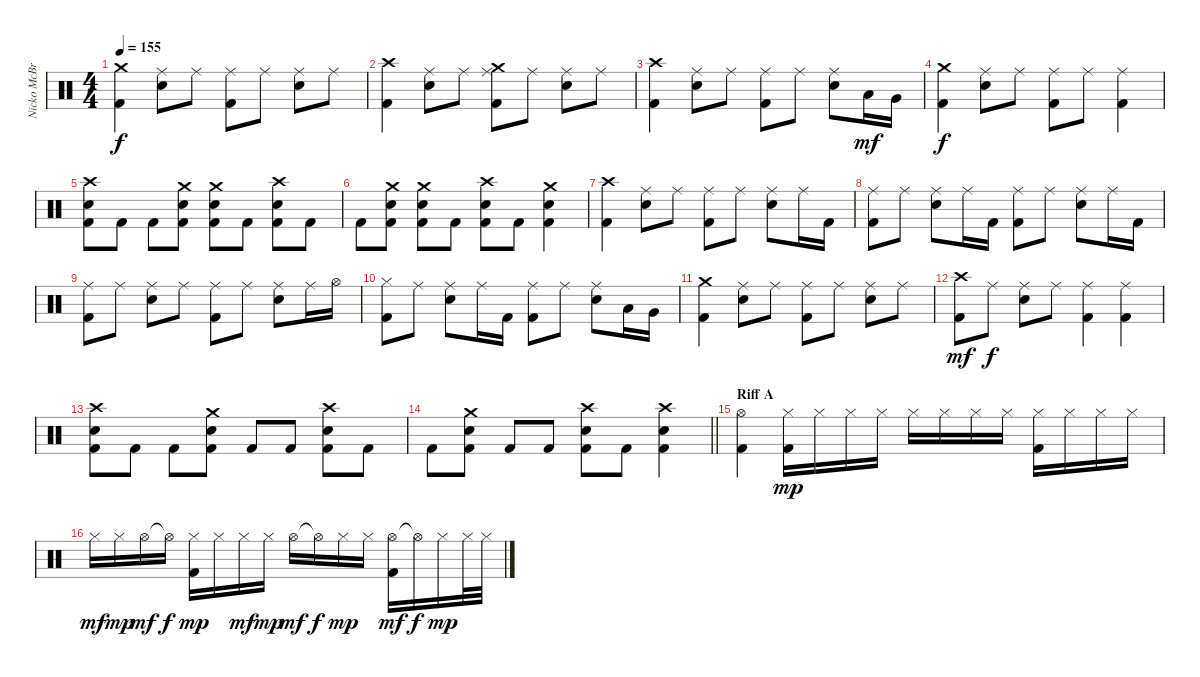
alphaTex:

\track ("Nicko McBrain" "Nicko McBr") {instrument percussion}
\staff {score}
\articulation defaults
\ts (4 4)
\tempo 155
\clef neutral
\ks c
("Crash medium (hit)" "Kick (hit) 2").4{dy f} ("Ride (middle)" "Snare (hit) 2").8 "Ride (middle)".8 ("Ride (middle)" "Kick (hit) 2").8 "Ride (middle)".8 ("Ride (middle)" "Snare (hit) 2").8 "Ride (middle)".8 |
("Crash high (hit)" "Kick (hit) 2").4 ("Ride (middle)" "Snare (hit) 2").8 "Ride (middle)".8 ("Ride (middle)" "Crash medium (hit)" "Kick (hit) 2").8 "Ride (middle)".8 ("Ride (middle)" "Snare (hit) 2").8 "Ride (middle)".8 |
("Crash high (hit)" "Kick (hit) 2").4 ("Ride (middle)" "Snare (hit) 2").8 "Ride (middle)".8 ("Ride (middle)" "Kick (hit) 2").8 "Ride (middle)".8 ("Ride (middle)" "Snare (hit) 2").8 "Low Tom (hit)".16{dy mf} "Very Low Tom (hit)".16 |
("Crash medium (hit)" "Kick (hit) 2").4{dy f} ("Ride (middle)" "Snare (hit) 2").8 "Ride (middle)".8 ("Ride (middle)" "Kick (hit) 2").8 "Ride (middle)".8 ("Ride (middle)" "Kick (hit) 2").4 |
("Snare (hit) 2" "Crash high (hit)" "Kick (hit) 2").8 "Kick (hit) 2".8 "Kick (hit) 2".8 ("Snare (hit) 2" "Crash medium (hit)" "Kick (hit) 2").8 ("Snare (hit) 2" "Crash medium (hit)" "Kick (hit) 2").8 "Kick (hit) 2".8 ("Snare (hit) 2" "Crash high (hit)" "Kick (hit) 2").8 "Kick (hit) 2".8 |
"Kick (hit) 2".8 ("Snare (hit) 2" "Crash medium (hit)" "Kick (hit) 2").8 ("Snare (hit) 2" "Crash medium (hit)" "Kick (hit) 2").8 "Kick (hit) 2".8 ("Snare (hit) 2" "Crash high (hit)" "Kick (hit) 2").8 "Kick (hit) 2".8 ("Snare (hit) 2" "Crash medium (hit)" "Kick (hit) 2").4 |
("Crash high (hit)" "Kick (hit) 2").4 ("Ride (middle)" "Snare (hit) 2").8 "Ride (middle)".8 ("Ride (middle)" "Kick (hit) 2").8 "Ride (middle)".8 ("Ride (middle)" "Snare (hit) 2").8 "Ride (middle)".16 "Kick (hit) 2".16 |
("Ride (middle)" "Kick (hit) 2").8 "Ride (middle)".8 ("Ride (middle)" "Snare (hit) 2").8 "Ride (middle)".16 "Kick (hit) 2".16 ("Ride (middle)" "Kick (hit) 2").8 "Ride (middle)".8 ("Ride (middle)" "Snare (hit) 2").8 "Ride (middle)".16 "Kick (hit) 2".16 |
("Ride (middle)" "Kick (hit) 2").8 "Ride (middle)".8 ("Ride (middle)" "Snare (hit) 2").8 "Ride (middle)".8 ("Ride (middle)" "Kick (hit) 2").8 "Ride (middle)".8 ("Ride (middle)" "Snare (hit) 2").8 "Ride (middle)".16 "Hi-Hat (open)".16 |
("Hi-Hat (closed)" "Kick (hit) 2").8 "Ride (middle)".8 ("Ride (middle)" "Snare (hit) 2").8 "Ride (middle)".16 "Kick (hit) 2".16 ("Ride (middle)" "Kick (hit) 2").8 "Ride (middle)".8 ("Ride (middle)" "Snare (hit) 2").8 "Low Tom (hit)".16 "Very Low Tom (hit)".16 |
("Crash medium (hit)" "Kick (hit) 2").4 ("Ride (middle)" "Snare (hit) 2").8 "Ride (middle)".8 ("Ride (middle)" "Kick (hit) 2").8 "Ride (middle)".8 ("Ride (middle)" "Snare (hit) 2").8 "Ride (middle)".8 |
("Crash high (hit)" "Kick (hit) 2").8{dy mf} "Ride (middle)".8{dy f} ("Ride (middle)" "Snare (hit) 2").8 "Ride (middle)".8 ("Ride (middle)" "Kick (hit) 2").4 ("Ride (middle)" "Kick (hit) 2").4 |
("Snare (hit) 2" "Crash high (hit)" "Kick (hit) 2").8 "Kick (hit) 2".8 "Kick (hit) 2".8 ("Snare (hit) 2" "Crash medium (hit)" "Kick (hit) 2").8 "Kick (hit) 2".8 "Kick (hit) 2".8 ("Snare (hit) 2" "Crash high (hit)" "Kick (hit) 2").8 "Kick (hit) 2".8 |
\barLineRight lightlight "Kick (hit) 2".8
("Snare (hit) 2" "Crash medium (hit)" "Kick (hit) 2").8 "Kick (hit) 2".8 "Kick (hit) 2".8 ("Snare (hit) 2" "Crash high (hit)" "Kick (hit) 2").8 "Kick (hit) 2".8 ("Snare (hit) 2" "Crash high (hit)" "Kick (hit) 2").4 |
\section ("" "Riff A")
("Hi-Hat (open)" "Kick (hit) 2").4 ("Hi-Hat (closed)" "Kick (hit) 2").16{dy mp} "Hi-Hat (closed)".16 "Hi-Hat (closed)".16 "Hi-Hat (closed)".16 "Hi-Hat (closed)".16 "Hi-Hat (closed)".16 "Hi-Hat (closed)".16 "Hi-Hat (closed)".16 ("Hi-Hat (closed)" "Kick (hit) 2").16 "Hi-Hat (closed)".16 "Hi-Hat (closed)".16 "Hi-Hat (closed)".16 |
"Hi-Hat (closed)".16{dy mf} "Hi-Hat (closed)".16{dy mp} "Hi-Hat (open)".16{dy mf} "Hi-Hat (open)"{t}.16{dy f} ("Hi-Hat (closed)" "Kick (hit) 2").16{dy mp} "Hi-Hat (closed)".16 "Hi-Hat (closed)".16{dy mf} "Hi-Hat (closed)".16{dy mp} "Hi-Hat (open)".16{dy mf} "Hi-Hat (open)"{t}.16{dy f} "Hi-Hat (closed)".16{dy mp} "Hi-Hat (closed)".16 ("Hi-Hat (open)" "Kick (hit) 2").16{dy mf} "Hi-Hat (open)"{t}.16{dy f} "Hi-Hat (closed)".16{dy mp} "Hi-Hat (closed)".32 "Hi-Hat (closed)".32
